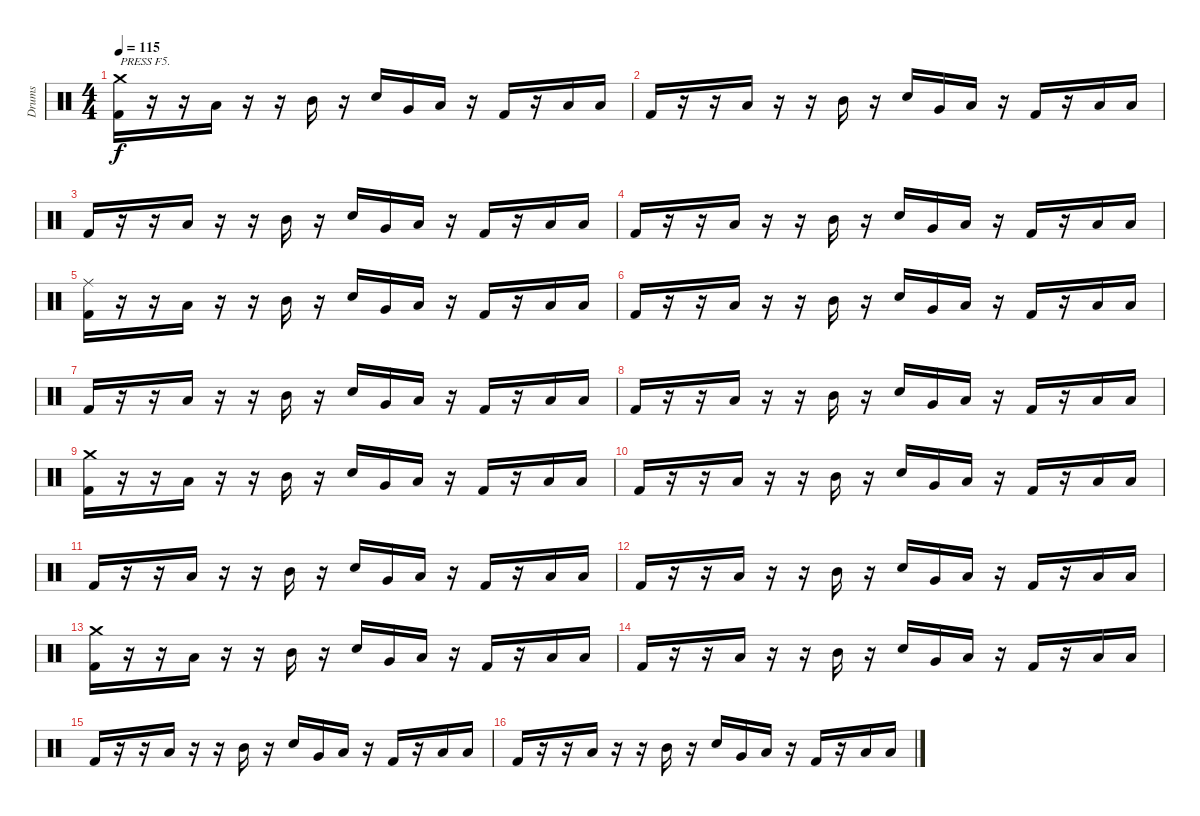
\track ("Drums" "Drums") {instrument percussion}
\staff {score}
\articulation defaults
\ts (4 4)
\tempo 115
\clef neutral
\ks c
("Crash medium (hit)" "Kick (hit) 2").16{txt "PRESS F5." dy f} r.16 r.16 "Low Tom (hit)".16 r.16 r.16 "Mid Tom (hit)".16 r.16 "Electric Snare (hit)".16 "Very Low Tom (hit)".16 "Low Floor Tom (hit)".16 r.16 "Kick (hit) 2".16 r.16 "Low Floor Tom (hit)".16 "Low Tom (hit)".16 |
"Kick (hit) 2".16 r.16 r.16 "Low Tom (hit)".16 r.16 r.16 "Mid Tom (hit)".16 r.16 "Electric Snare (hit)".16 "Very Low Tom (hit)".16 "Low Floor Tom (hit)".16 r.16 "Kick (hit) 2".16 r.16 "Low Floor Tom (hit)".16 "Low Tom (hit)".16 |
"Kick (hit) 2".16 r.16 r.16 "Low Tom (hit)".16 r.16 r.16 "Mid Tom (hit)".16 r.16 "Electric Snare (hit)".16 "Very Low Tom (hit)".16 "Low Floor Tom (hit)".16 r.16 "Kick (hit) 2".16 r.16 "Low Floor Tom (hit)".16 "Low Tom (hit)".16 |
"Kick (hit) 2".16 r.16 r.16 "Low Tom (hit)".16 r.16 r.16 "Mid Tom (hit)".16 r.16 "Electric Snare (hit)".16 "Very Low Tom (hit)".16 "Low Floor Tom (hit)".16 r.16 "Kick (hit) 2".16 r.16 "Low Floor Tom (hit)".16 "Low Tom (hit)".16 |
("Ride (middle)" "Kick (hit) 2").16 r.16 r.16 "Low Tom (hit)".16 r.16 r.16 "Mid Tom (hit)".16 r.16 "Electric Snare (hit)".16 "Very Low Tom (hit)".16 "Low Floor Tom (hit)".16 r.16 "Kick (hit) 2".16 r.16 "Low Floor Tom (hit)".16 "Low Tom (hit)".16 |
"Kick (hit) 2".16 r.16 r.16 "Low Tom (hit)".16 r.16 r.16 "Mid Tom (hit)".16 r.16 "Electric Snare (hit)".16 "Very Low Tom (hit)".16 "Low Floor Tom (hit)".16 r.16 "Kick (hit) 2".16 r.16 "Low Floor Tom (hit)".16 "Low Tom (hit)".16 |
"Kick (hit) 2".16 r.16 r.16 "Low Tom (hit)".16 r.16 r.16 "Mid Tom (hit)".16 r.16 "Electric Snare (hit)".16 "Very Low Tom (hit)".16 "Low Floor Tom (hit)".16 r.16 "Kick (hit) 2".16 r.16 "Low Floor Tom (hit)".16 "Low Tom (hit)".16 |
"Kick (hit) 2".16 r.16 r.16 "Low Tom (hit)".16 r.16 r.16 "Mid Tom (hit)".16 r.16 "Electric Snare (hit)".16 "Very Low Tom (hit)".16 "Low Floor Tom (hit)".16 r.16 "Kick (hit) 2".16 r.16 "Low Floor Tom (hit)".16 "Low Tom (hit)".16 |
("Crash medium (hit)" "Kick (hit) 2").16 r.16 r.16 "Low Tom (hit)".16 r.16 r.16 "Mid Tom (hit)".16 r.16 "Electric Snare (hit)".16 "Very Low Tom (hit)".16 "Low Floor Tom (hit)".16 r.16 "Kick (hit) 2".16 r.16 "Low Floor Tom (hit)".16 "Low Tom (hit)".16 |
"Kick (hit) 2".16 r.16 r.16 "Low Tom (hit)".16 r.16 r.16 "Mid Tom (hit)".16 r.16 "Electric Snare (hit)".16 "Very Low Tom (hit)".16 "Low Floor Tom (hit)".16 r.16 "Kick (hit) 2".16 r.16 "Low Floor Tom (hit)".16 "Low Tom (hit)".16 |
"Kick (hit) 2".16 r.16 r.16 "Low Tom (hit)".16 r.16 r.16 "Mid Tom (hit)".16 r.16 "Electric Snare (hit)".16 "Very Low Tom (hit)".16 "Low Floor Tom (hit)".16 r.16 "Kick (hit) 2".16 r.16 "Low Floor Tom (hit)".16 "Low Tom (hit)".16 |
"Kick (hit) 2".16 r.16 r.16 "Low Tom (hit)".16 r.16 r.16 "Mid Tom (hit)".16 r.16 "Electric Snare (hit)".16 "Very Low Tom (hit)".16 "Low Floor Tom (hit)".16 r.16 "Kick (hit) 2".16 r.16 "Low Floor Tom (hit)".16 "Low Tom (hit)".16 |
("Crash medium (hit)" "Kick (hit) 2").16 r.16 r.16 "Low Tom (hit)".16 r.16 r.16 "Mid Tom (hit)".16 r.16 "Electric Snare (hit)".16 "Very Low Tom (hit)".16 "Low Floor Tom (hit)".16 r.16 "Kick (hit) 2".16 r.16 "Low Floor Tom (hit)".16 "Low Tom (hit)".16 |
"Kick (hit) 2".16 r.16 r.16 "Low Tom (hit)".16 r.16 r.16 "Mid Tom (hit)".16 r.16 "Electric Snare (hit)".16 "Very Low Tom (hit)".16 "Low Floor Tom (hit)".16 r.16 "Kick (hit) 2".16 r.16 "Low Floor Tom (hit)".16 "Low Tom (hit)".16 |
"Kick (hit) 2".16 r.16 r.16 "Low Tom (hit)".16 r.16 r.16 "Mid Tom (hit)".16 r.16 "Electric Snare (hit)".16 "Very Low Tom (hit)".16 "Low Floor Tom (hit)".16 r.16 "Kick (hit) 2".16 r.16 "Low Floor Tom (hit)".16 "Low Tom (hit)".16 |
"Kick (hit) 2".16 r.16 r.16 "Low Tom (hit)".16 r.16 r.16 "Mid Tom (hit)".16 r.16 "Electric Snare (hit)".16 "Very Low Tom (hit)".16 "Low Floor Tom (hit)".16 r.16 "Kick (hit) 2".16 r.16 "Low Floor Tom (hit)".16 "Low Tom (hit)".16
